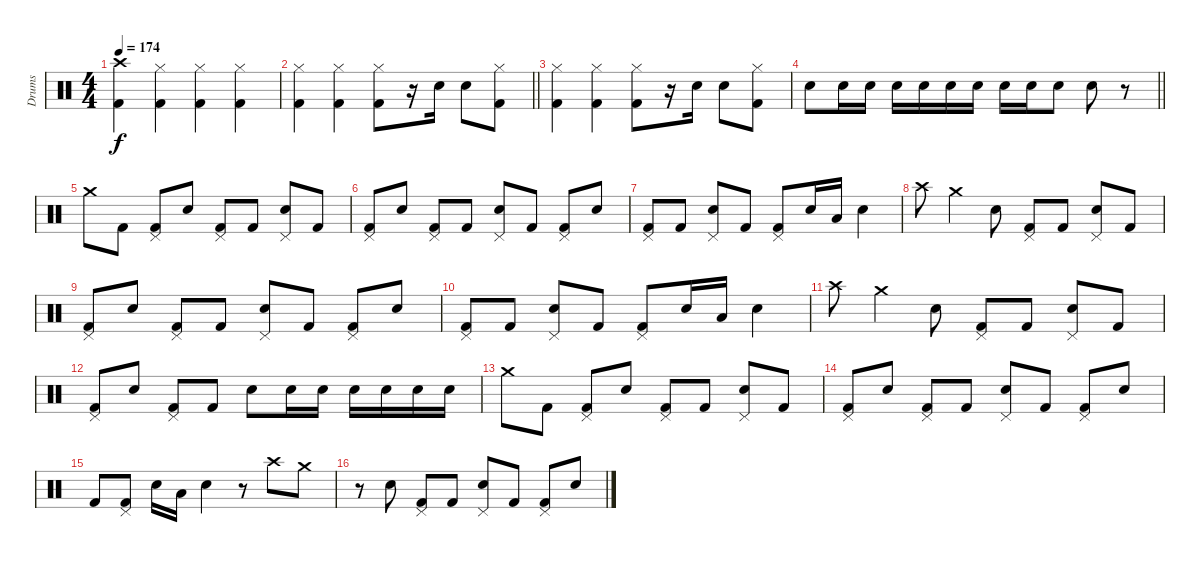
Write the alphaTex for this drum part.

\track ("Drums" "Drums") {instrument percussion}
\staff {score}
\articulation defaults
\ts (4 4)
\tempo 174
\clef neutral
\ks c
("Kick (hit) 2" "Crash high (hit)").4{dy f} ("Kick (hit) 2" "Hi-Hat (closed)").4 ("Kick (hit) 2" "Hi-Hat (closed)").4 ("Kick (hit) 2" "Hi-Hat (closed)").4 |
\barLineRight lightlight
("Kick (hit) 2" "Hi-Hat (closed)").4 ("Kick (hit) 2" "Hi-Hat (closed)").4 ("Kick (hit) 2" "Hi-Hat (closed)").8 r.16 "Snare (hit) 2".16 "Snare (hit) 2".8 ("Kick (hit) 2" "Hi-Hat (closed)").8 |
("Kick (hit) 2" "Hi-Hat (closed)").4 ("Kick (hit) 2" "Hi-Hat (closed)").4 ("Kick (hit) 2" "Hi-Hat (closed)").8 r.16 "Snare (hit) 2".16 "Snare (hit) 2".8 ("Kick (hit) 2" "Hi-Hat (closed)").8 |
\barLineRight lightlight "Snare (hit) 2".8 "Snare (hit) 2".16 "Snare (hit) 2".16 "Snare (hit) 2".16 "Snare (hit) 2".16 "Snare (hit) 2".16 "Snare (hit) 2".16 "Snare (hit) 2".16 "Snare (hit) 2".16 "Snare (hit) 2".8 "Snare (hit) 2".8
r.8 |
"Crash medium (hit)".8 "Kick (hit) 2".8 ("Pedal Hi-Hat (hit)" "Kick (hit) 2").8 "Snare (hit) 2".8 ("Pedal Hi-Hat (hit)" "Kick (hit) 2").8 "Kick (hit) 2".8 ("Snare (hit) 2" "Pedal Hi-Hat (hit)").8 "Kick (hit) 2".8 |
("Pedal Hi-Hat (hit)" "Kick (hit) 2").8 "Snare (hit) 2".8 ("Pedal Hi-Hat (hit)" "Kick (hit) 2").8 "Kick (hit) 2".8 ("Snare (hit) 2" "Pedal Hi-Hat (hit)").8 "Kick (hit) 2".8 ("Pedal Hi-Hat (hit)" "Kick (hit) 2").8 "Snare (hit) 2".8 |
("Pedal Hi-Hat (hit)" "Kick (hit) 2").8 "Kick (hit) 2".8 ("Snare (hit) 2" "Pedal Hi-Hat (hit)").8 "Kick (hit) 2".8 ("Pedal Hi-Hat (hit)" "Kick (hit) 2").8 "Snare (hit) 2".16 "Low Tom (hit)".16 "Snare (hit) 2".4 |
"Crash high (hit)".8 "Crash medium (hit)".4 "Snare (hit) 2".8 ("Pedal Hi-Hat (hit)" "Kick (hit) 2").8 "Kick (hit) 2".8 ("Snare (hit) 2" "Pedal Hi-Hat (hit)").8 "Kick (hit) 2".8 |
("Pedal Hi-Hat (hit)" "Kick (hit) 2").8 "Snare (hit) 2".8 ("Pedal Hi-Hat (hit)" "Kick (hit) 2").8 "Kick (hit) 2".8 ("Snare (hit) 2" "Pedal Hi-Hat (hit)").8 "Kick (hit) 2".8 ("Pedal Hi-Hat (hit)" "Kick (hit) 2").8 "Snare (hit) 2".8 |
("Pedal Hi-Hat (hit)" "Kick (hit) 2").8 "Kick (hit) 2".8 ("Snare (hit) 2" "Pedal Hi-Hat (hit)").8 "Kick (hit) 2".8 ("Pedal Hi-Hat (hit)" "Kick (hit) 2").8 "Snare (hit) 2".16 "Low Tom (hit)".16 "Snare (hit) 2".4 |
"Crash high (hit)".8 "Crash medium (hit)".4 "Snare (hit) 2".8 ("Pedal Hi-Hat (hit)" "Kick (hit) 2").8 "Kick (hit) 2".8 ("Snare (hit) 2" "Pedal Hi-Hat (hit)").8 "Kick (hit) 2".8 |
("Pedal Hi-Hat (hit)" "Kick (hit) 2").8 "Snare (hit) 2".8 ("Pedal Hi-Hat (hit)" "Kick (hit) 2").8 "Kick (hit) 2".8 "Snare (hit) 2".8 "Snare (hit) 2".16 "Snare (hit) 2".16 "Snare (hit) 2".16 "Snare (hit) 2".16 "Snare (hit) 2".16 "Snare (hit) 2".16 |
"Crash medium (hit)".8 "Kick (hit) 2".8 ("Pedal Hi-Hat (hit)" "Kick (hit) 2").8 "Snare (hit) 2".8 ("Pedal Hi-Hat (hit)" "Kick (hit) 2").8 "Kick (hit) 2".8 ("Snare (hit) 2" "Pedal Hi-Hat (hit)").8 "Kick (hit) 2".8 |
("Pedal Hi-Hat (hit)" "Kick (hit) 2").8 "Snare (hit) 2".8 ("Pedal Hi-Hat (hit)" "Kick (hit) 2").8 "Kick (hit) 2".8 ("Snare (hit) 2" "Pedal Hi-Hat (hit)").8 "Kick (hit) 2".8 ("Pedal Hi-Hat (hit)" "Kick (hit) 2").8 "Snare (hit) 2".8 |
"Kick (hit) 2".8 ("Pedal Hi-Hat (hit)" "Kick (hit) 2").8 "Snare (hit) 2".16 "Low Tom (hit)".16 "Snare (hit) 2".4 r.8 "Crash high (hit)".8 "Crash medium (hit)".8 |
r.8 "Snare (hit) 2".8 ("Pedal Hi-Hat (hit)" "Kick (hit) 2").8 "Kick (hit) 2".8 ("Snare (hit) 2" "Pedal Hi-Hat (hit)").8 "Kick (hit) 2".8 ("Pedal Hi-Hat (hit)" "Kick (hit) 2").8 "Snare (hit) 2".8
